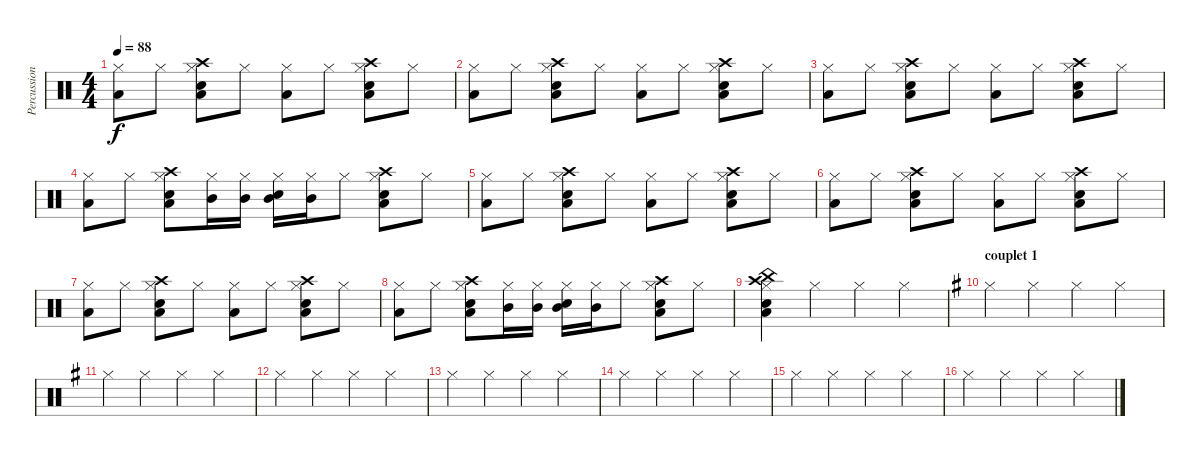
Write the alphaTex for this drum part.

\track ("Percussions" "Percussion") {instrument percussion}
\staff {score}
\articulation defaults
\ts (4 4)
\tempo 88
\clef neutral
\ks c
("Hi-Hat (closed)" "Low Floor Tom (hit)").8{dy f} "Hi-Hat (closed)".8 ("Snare (hit) 2" "Low Floor Tom (hit)" "Hi-Hat (closed)" "Crash high (hit)").8 "Hi-Hat (closed)".8 ("Hi-Hat (closed)" "Low Floor Tom (hit)").8 "Hi-Hat (closed)".8 ("Snare (hit) 2" "Low Floor Tom (hit)" "Hi-Hat (closed)" "Crash high (hit)").8 "Hi-Hat (closed)".8 |
("Hi-Hat (closed)" "Low Floor Tom (hit)").8 "Hi-Hat (closed)".8 ("Snare (hit) 2" "Low Floor Tom (hit)" "Hi-Hat (closed)" "Crash high (hit)").8 "Hi-Hat (closed)".8 ("Hi-Hat (closed)" "Low Floor Tom (hit)").8 "Hi-Hat (closed)".8 ("Snare (hit) 2" "Low Floor Tom (hit)" "Hi-Hat (closed)" "Crash high (hit)").8 "Hi-Hat (closed)".8 |
("Hi-Hat (closed)" "Low Floor Tom (hit)").8 "Hi-Hat (closed)".8 ("Snare (hit) 2" "Low Floor Tom (hit)" "Hi-Hat (closed)" "Crash high (hit)").8 "Hi-Hat (closed)".8 ("Hi-Hat (closed)" "Low Floor Tom (hit)").8 "Hi-Hat (closed)".8 ("Snare (hit) 2" "Low Floor Tom (hit)" "Hi-Hat (closed)" "Crash high (hit)").8 "Hi-Hat (closed)".8 |
("Hi-Hat (closed)" "Low Floor Tom (hit)").8 "Hi-Hat (closed)".8 ("Snare (hit) 2" "Low Floor Tom (hit)" "Hi-Hat (closed)" "Crash high (hit)").8 ("Mid Tom (hit)" "Hi-Hat (closed)").16 ("Mid Tom (hit)" "Hi-Hat (closed)").16 ("Snare (hit) 2" "Mid Tom (hit)" "Hi-Hat (closed)").16 ("Mid Tom (hit)" "Hi-Hat (closed)").16 "Hi-Hat (closed)".8 ("Snare (hit) 2" "Low Floor Tom (hit)" "Hi-Hat (closed)" "Crash high (hit)").8 "Hi-Hat (closed)".8 |
("Hi-Hat (closed)" "Low Floor Tom (hit)").8 "Hi-Hat (closed)".8 ("Snare (hit) 2" "Low Floor Tom (hit)" "Hi-Hat (closed)" "Crash high (hit)").8 "Hi-Hat (closed)".8 ("Hi-Hat (closed)" "Low Floor Tom (hit)").8 "Hi-Hat (closed)".8 ("Snare (hit) 2" "Low Floor Tom (hit)" "Hi-Hat (closed)" "Crash high (hit)").8 "Hi-Hat (closed)".8 |
("Hi-Hat (closed)" "Low Floor Tom (hit)").8 "Hi-Hat (closed)".8 ("Snare (hit) 2" "Low Floor Tom (hit)" "Hi-Hat (closed)" "Crash high (hit)").8 "Hi-Hat (closed)".8 ("Hi-Hat (closed)" "Low Floor Tom (hit)").8 "Hi-Hat (closed)".8 ("Snare (hit) 2" "Low Floor Tom (hit)" "Hi-Hat (closed)" "Crash high (hit)").8 "Hi-Hat (closed)".8 |
("Hi-Hat (closed)" "Low Floor Tom (hit)").8 "Hi-Hat (closed)".8 ("Snare (hit) 2" "Low Floor Tom (hit)" "Hi-Hat (closed)" "Crash high (hit)").8 "Hi-Hat (closed)".8 ("Hi-Hat (closed)" "Low Floor Tom (hit)").8 "Hi-Hat (closed)".8 ("Snare (hit) 2" "Low Floor Tom (hit)" "Hi-Hat (closed)" "Crash high (hit)").8 "Hi-Hat (closed)".8 |
("Hi-Hat (closed)" "Low Floor Tom (hit)").8 "Hi-Hat (closed)".8 ("Snare (hit) 2" "Low Floor Tom (hit)" "Hi-Hat (closed)" "Crash high (hit)").8 ("Mid Tom (hit)" "Hi-Hat (closed)").16 ("Mid Tom (hit)" "Hi-Hat (closed)").16 ("Snare (hit) 2" "Mid Tom (hit)" "Hi-Hat (closed)").16 ("Mid Tom (hit)" "Hi-Hat (closed)").16 "Hi-Hat (closed)".8 ("Snare (hit) 2" "Low Floor Tom (hit)" "Hi-Hat (closed)" "Crash high (hit)").8 "Hi-Hat (closed)".8 |
("China (hit)" "Snare (hit) 2" "Low Floor Tom (hit)" "Hi-Hat (closed)" "Crash high (hit)").4 "Hi-Hat (closed)".4 "Hi-Hat (closed)".4 "Hi-Hat (closed)".4 |
\section ("" "couplet 1 ")
\ks g "Hi-Hat (closed)".4 "Hi-Hat (closed)".4 "Hi-Hat (closed)".4 "Hi-Hat (closed)".4
|
"Hi-Hat (closed)".4 "Hi-Hat (closed)".4 "Hi-Hat (closed)".4 "Hi-Hat (closed)".4 |
"Hi-Hat (closed)".4 "Hi-Hat (closed)".4 "Hi-Hat (closed)".4 "Hi-Hat (closed)".4 |
"Hi-Hat (closed)".4 "Hi-Hat (closed)".4 "Hi-Hat (closed)".4 "Hi-Hat (closed)".4 |
"Hi-Hat (closed)".4 "Hi-Hat (closed)".4 "Hi-Hat (closed)".4 "Hi-Hat (closed)".4 |
"Hi-Hat (closed)".4 "Hi-Hat (closed)".4 "Hi-Hat (closed)".4 "Hi-Hat (closed)".4 |
"Hi-Hat (closed)".4 "Hi-Hat (closed)".4 "Hi-Hat (closed)".4 "Hi-Hat (closed)".4
